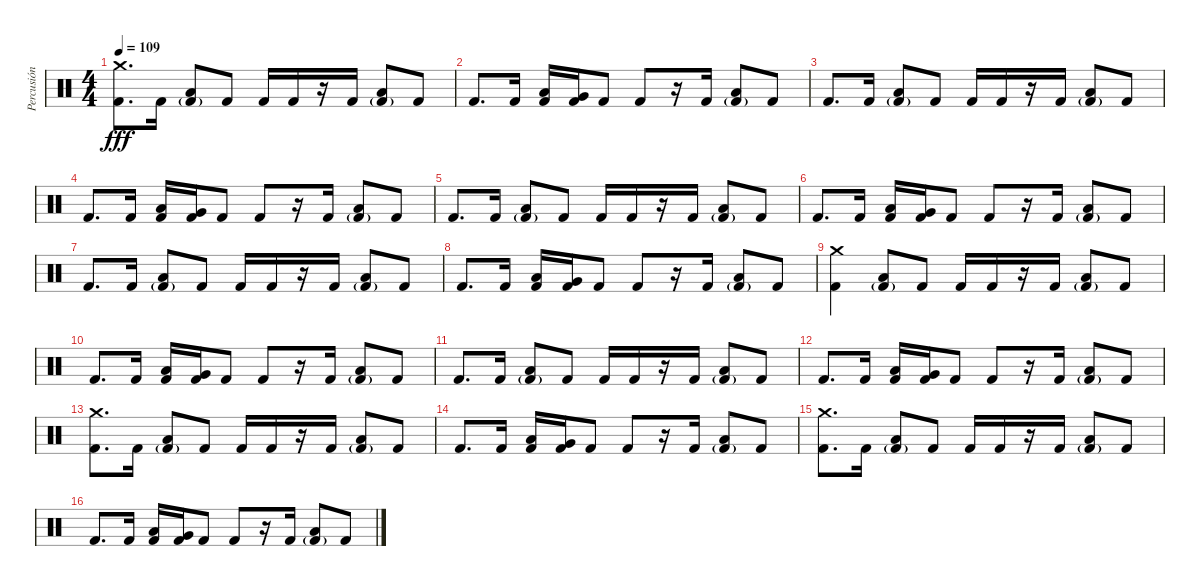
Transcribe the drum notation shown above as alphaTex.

\track ("Percusión" "Percusión") {instrument percussion}
\staff {score}
\articulation defaults
\ts (4 4)
\tempo 109
\clef neutral
\ks c
("Crash medium (hit)" "Kick (hit) 2").8{d dy fff} "Kick (hit) 2".16 ("Low Tom (hit)" "Kick (hit) 2"{g}).8 "Kick (hit) 2".8 "Kick (hit) 2".16 "Kick (hit) 2".16 r.16 "Kick (hit) 2".16 ("Low Tom (hit)" "Kick (hit) 2"{g}).8 "Kick (hit) 2".8 |
"Kick (hit) 2".8{d} "Kick (hit) 2".16 ("Low Tom (hit)" "Kick (hit) 2").16 ("Very Low Tom (hit)" "Kick (hit) 2").16 "Kick (hit) 2".8 "Kick (hit) 2".8 r.16 "Kick (hit) 2".16 ("Low Tom (hit)" "Kick (hit) 2"{g}).8 "Kick (hit) 2".8 |
"Kick (hit) 2".8{d} "Kick (hit) 2".16 ("Low Tom (hit)" "Kick (hit) 2"{g}).8 "Kick (hit) 2".8 "Kick (hit) 2".16 "Kick (hit) 2".16 r.16 "Kick (hit) 2".16 ("Low Tom (hit)" "Kick (hit) 2"{g}).8 "Kick (hit) 2".8 |
"Kick (hit) 2".8{d} "Kick (hit) 2".16 ("Low Tom (hit)" "Kick (hit) 2").16 ("Very Low Tom (hit)" "Kick (hit) 2").16 "Kick (hit) 2".8 "Kick (hit) 2".8 r.16 "Kick (hit) 2".16 ("Low Tom (hit)" "Kick (hit) 2"{g}).8 "Kick (hit) 2".8 |
"Kick (hit) 2".8{d} "Kick (hit) 2".16 ("Low Tom (hit)" "Kick (hit) 2"{g}).8 "Kick (hit) 2".8 "Kick (hit) 2".16 "Kick (hit) 2".16 r.16 "Kick (hit) 2".16 ("Low Tom (hit)" "Kick (hit) 2"{g}).8 "Kick (hit) 2".8 |
"Kick (hit) 2".8{d} "Kick (hit) 2".16 ("Low Tom (hit)" "Kick (hit) 2").16 ("Very Low Tom (hit)" "Kick (hit) 2").16 "Kick (hit) 2".8 "Kick (hit) 2".8 r.16 "Kick (hit) 2".16 ("Low Tom (hit)" "Kick (hit) 2"{g}).8 "Kick (hit) 2".8 |
"Kick (hit) 2".8{d} "Kick (hit) 2".16 ("Low Tom (hit)" "Kick (hit) 2"{g}).8 "Kick (hit) 2".8 "Kick (hit) 2".16 "Kick (hit) 2".16 r.16 "Kick (hit) 2".16 ("Low Tom (hit)" "Kick (hit) 2"{g}).8 "Kick (hit) 2".8 |
"Kick (hit) 2".8{d} "Kick (hit) 2".16 ("Low Tom (hit)" "Kick (hit) 2").16 ("Very Low Tom (hit)" "Kick (hit) 2").16 "Kick (hit) 2".8 "Kick (hit) 2".8 r.16 "Kick (hit) 2".16 ("Low Tom (hit)" "Kick (hit) 2"{g}).8 "Kick (hit) 2".8 |
("Crash medium (hit)" "Kick (hit) 2").4 ("Low Tom (hit)" "Kick (hit) 2"{g}).8 "Kick (hit) 2".8 "Kick (hit) 2".16 "Kick (hit) 2".16 r.16 "Kick (hit) 2".16 ("Low Tom (hit)" "Kick (hit) 2"{g}).8 "Kick (hit) 2".8 |
"Kick (hit) 2".8{d} "Kick (hit) 2".16 ("Low Tom (hit)" "Kick (hit) 2").16 ("Very Low Tom (hit)" "Kick (hit) 2").16 "Kick (hit) 2".8 "Kick (hit) 2".8 r.16 "Kick (hit) 2".16 ("Low Tom (hit)" "Kick (hit) 2"{g}).8 "Kick (hit) 2".8 |
"Kick (hit) 2".8{d} "Kick (hit) 2".16 ("Low Tom (hit)" "Kick (hit) 2"{g}).8 "Kick (hit) 2".8 "Kick (hit) 2".16 "Kick (hit) 2".16 r.16 "Kick (hit) 2".16 ("Low Tom (hit)" "Kick (hit) 2"{g}).8 "Kick (hit) 2".8 |
"Kick (hit) 2".8{d} "Kick (hit) 2".16 ("Low Tom (hit)" "Kick (hit) 2").16 ("Very Low Tom (hit)" "Kick (hit) 2").16 "Kick (hit) 2".8 "Kick (hit) 2".8 r.16 "Kick (hit) 2".16 ("Low Tom (hit)" "Kick (hit) 2"{g}).8 "Kick (hit) 2".8 |
("Crash medium (hit)" "Kick (hit) 2").8{d} "Kick (hit) 2".16 ("Low Tom (hit)" "Kick (hit) 2"{g}).8 "Kick (hit) 2".8 "Kick (hit) 2".16 "Kick (hit) 2".16 r.16 "Kick (hit) 2".16 ("Low Tom (hit)" "Kick (hit) 2"{g}).8 "Kick (hit) 2".8 |
"Kick (hit) 2".8{d} "Kick (hit) 2".16 ("Low Tom (hit)" "Kick (hit) 2").16 ("Very Low Tom (hit)" "Kick (hit) 2").16 "Kick (hit) 2".8 "Kick (hit) 2".8 r.16 "Kick (hit) 2".16 ("Low Tom (hit)" "Kick (hit) 2"{g}).8 "Kick (hit) 2".8 |
("Crash medium (hit)" "Kick (hit) 2").8{d} "Kick (hit) 2".16 ("Low Tom (hit)" "Kick (hit) 2"{g}).8 "Kick (hit) 2".8 "Kick (hit) 2".16 "Kick (hit) 2".16 r.16 "Kick (hit) 2".16 ("Low Tom (hit)" "Kick (hit) 2"{g}).8 "Kick (hit) 2".8 |
"Kick (hit) 2".8{d} "Kick (hit) 2".16 ("Low Tom (hit)" "Kick (hit) 2").16 ("Very Low Tom (hit)" "Kick (hit) 2").16 "Kick (hit) 2".8 "Kick (hit) 2".8 r.16 "Kick (hit) 2".16 ("Low Tom (hit)" "Kick (hit) 2"{g}).8 "Kick (hit) 2".8
